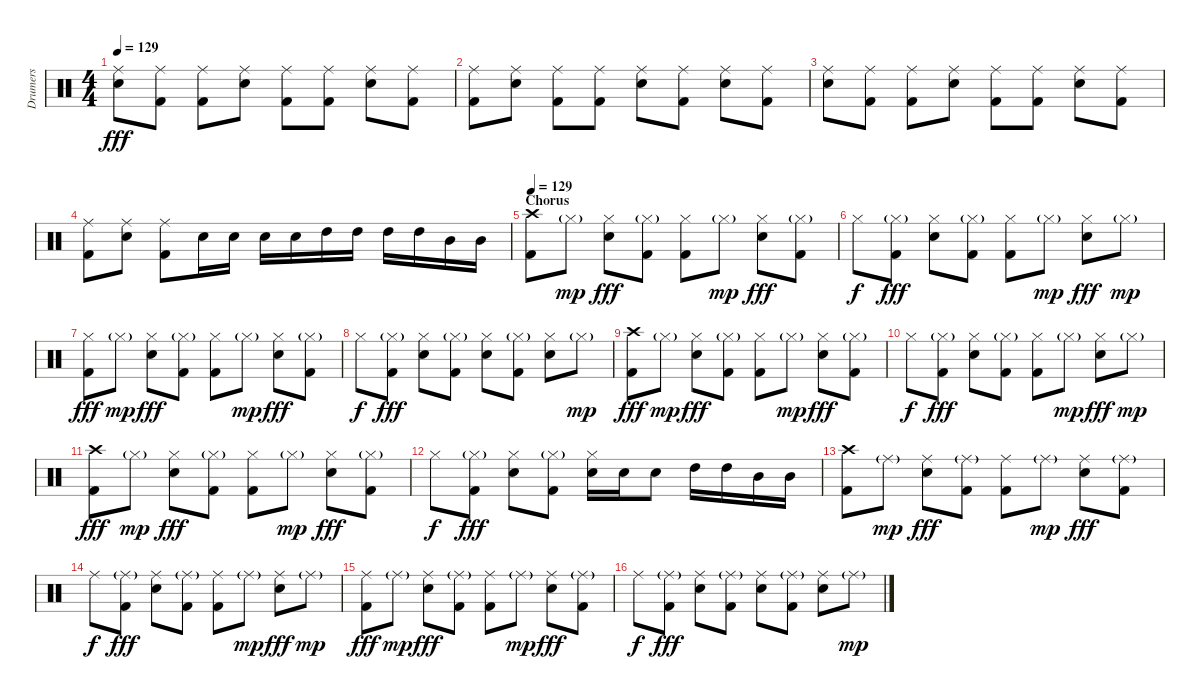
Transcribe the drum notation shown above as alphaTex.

\track ("Drumers" "Drumers") {instrument percussion}
\staff {score}
\articulation defaults
\ts (4 4)
\tempo 129
\clef neutral
\ks c
("Ride (middle)" "Electric Snare (hit)").8{dy fff} ("Ride (middle)" "Kick (hit) 2").8 ("Ride (middle)" "Kick (hit) 2").8 ("Ride (middle)" "Electric Snare (hit)").8 ("Ride (middle)" "Kick (hit) 2").8 ("Ride (middle)" "Kick (hit) 2").8 ("Ride (middle)" "Electric Snare (hit)").8 ("Ride (middle)" "Kick (hit) 2").8 |
("Ride (middle)" "Kick (hit) 2").8 ("Ride (middle)" "Electric Snare (hit)").8 ("Ride (middle)" "Kick (hit) 2").8 ("Ride (middle)" "Kick (hit) 2").8 ("Ride (middle)" "Electric Snare (hit)").8 ("Ride (middle)" "Kick (hit) 2").8 ("Ride (middle)" "Electric Snare (hit)").8 ("Ride (middle)" "Kick (hit) 2").8 |
("Ride (middle)" "Electric Snare (hit)").8 ("Ride (middle)" "Kick (hit) 2").8 ("Ride (middle)" "Kick (hit) 2").8 ("Ride (middle)" "Electric Snare (hit)").8 ("Ride (middle)" "Kick (hit) 2").8 ("Ride (middle)" "Kick (hit) 2").8 ("Ride (middle)" "Electric Snare (hit)").8 ("Ride (middle)" "Kick (hit) 2").8 |
("Ride (middle)" "Kick (hit) 2").8 ("Ride (middle)" "Electric Snare (hit)").8 ("Ride (middle)" "Kick (hit) 2").8 "Electric Snare (hit)".16 "Electric Snare (hit)".16 "Electric Snare (hit)".16 "Electric Snare (hit)".16 "High Tom (hit)".16 "High Tom (hit)".16 "High Tom (hit)".16 "High Tom (hit)".16 "Mid Tom (hit)".16 "Mid Tom (hit)".16 |
\section ("" "Chorus")
\tempo 129
("Crash high (hit)" "Kick (hit) 2").8 "Hi-Hat (closed)"{g}.8{dy mp} ("Hi-Hat (closed)" "Electric Snare (hit)").8{dy fff} ("Hi-Hat (closed)"{g} "Kick (hit) 2").8 ("Hi-Hat (closed)" "Kick (hit) 2").8 "Hi-Hat (closed)"{g}.8{dy mp} ("Hi-Hat (closed)" "Electric Snare (hit)").8{dy fff} ("Hi-Hat (closed)"{g} "Kick (hit) 2").8 |
"Hi-Hat (closed)".8{dy f} ("Hi-Hat (closed)"{g} "Kick (hit) 2").8{dy fff} ("Hi-Hat (closed)" "Electric Snare (hit)").8 ("Hi-Hat (closed)"{g} "Kick (hit) 2").8 ("Hi-Hat (closed)" "Kick (hit) 2").8 "Hi-Hat (closed)"{g}.8{dy mp} ("Hi-Hat (closed)" "Electric Snare (hit)").8{dy fff} "Hi-Hat (closed)"{g}.8{dy mp} |
("Hi-Hat (closed)" "Kick (hit) 2").8{dy fff} "Hi-Hat (closed)"{g}.8{dy mp} ("Hi-Hat (closed)" "Electric Snare (hit)").8{dy fff} ("Hi-Hat (closed)"{g} "Kick (hit) 2").8 ("Hi-Hat (closed)" "Kick (hit) 2").8 "Hi-Hat (closed)"{g}.8{dy mp} ("Hi-Hat (closed)" "Electric Snare (hit)").8{dy fff} ("Hi-Hat (closed)"{g} "Kick (hit) 2").8 |
"Hi-Hat (closed)".8{dy f} ("Hi-Hat (closed)"{g} "Kick (hit) 2").8{dy fff} ("Hi-Hat (closed)" "Electric Snare (hit)").8 ("Hi-Hat (closed)"{g} "Kick (hit) 2").8 ("Hi-Hat (closed)" "Electric Snare (hit)").8 ("Hi-Hat (closed)"{g} "Kick (hit) 2").8 ("Hi-Hat (closed)" "Electric Snare (hit)").8 "Hi-Hat (closed)"{g}.8{dy mp} |
("Crash high (hit)" "Kick (hit) 2").8{dy fff} "Hi-Hat (closed)"{g}.8{dy mp} ("Hi-Hat (closed)" "Electric Snare (hit)").8{dy fff} ("Hi-Hat (closed)"{g} "Kick (hit) 2").8 ("Hi-Hat (closed)" "Kick (hit) 2").8 "Hi-Hat (closed)"{g}.8{dy mp} ("Hi-Hat (closed)" "Electric Snare (hit)").8{dy fff} ("Hi-Hat (closed)"{g} "Kick (hit) 2").8 |
"Hi-Hat (closed)".8{dy f} ("Hi-Hat (closed)"{g} "Kick (hit) 2").8{dy fff} ("Hi-Hat (closed)" "Electric Snare (hit)").8 ("Hi-Hat (closed)"{g} "Kick (hit) 2").8 ("Hi-Hat (closed)" "Kick (hit) 2").8 "Hi-Hat (closed)"{g}.8{dy mp} ("Hi-Hat (closed)" "Electric Snare (hit)").8{dy fff} "Hi-Hat (closed)"{g}.8{dy mp} |
("Crash high (hit)" "Kick (hit) 2").8{dy fff} "Hi-Hat (closed)"{g}.8{dy mp} ("Hi-Hat (closed)" "Electric Snare (hit)").8{dy fff} ("Hi-Hat (closed)"{g} "Kick (hit) 2").8 ("Hi-Hat (closed)" "Kick (hit) 2").8 "Hi-Hat (closed)"{g}.8{dy mp} ("Hi-Hat (closed)" "Electric Snare (hit)").8{dy fff} ("Hi-Hat (closed)"{g} "Kick (hit) 2").8 |
"Hi-Hat (closed)".8{dy f} ("Hi-Hat (closed)"{g} "Kick (hit) 2").8{dy fff} ("Hi-Hat (closed)" "Electric Snare (hit)").8 ("Hi-Hat (closed)"{g} "Kick (hit) 2").8 ("Hi-Hat (closed)" "Electric Snare (hit)").16 "Electric Snare (hit)".16 "Electric Snare (hit)".8 "High Tom (hit)".16 "High Tom (hit)".16 "Mid Tom (hit)".16 "Mid Tom (hit)".16 |
("Crash high (hit)" "Kick (hit) 2").8 "Ride (middle)"{g}.8{dy mp} ("Ride (middle)" "Electric Snare (hit)").8{dy fff} ("Ride (middle)"{g} "Kick (hit) 2").8 ("Ride (middle)" "Kick (hit) 2").8 "Ride (middle)"{g}.8{dy mp} ("Ride (middle)" "Electric Snare (hit)").8{dy fff} ("Ride (middle)"{g} "Kick (hit) 2").8 |
"Ride (middle)".8{dy f} ("Ride (middle)"{g} "Kick (hit) 2").8{dy fff} ("Ride (middle)" "Electric Snare (hit)").8 ("Ride (middle)"{g} "Kick (hit) 2").8 ("Ride (middle)" "Kick (hit) 2").8 "Ride (middle)"{g}.8{dy mp} ("Ride (middle)" "Electric Snare (hit)").8{dy fff} "Ride (middle)"{g}.8{dy mp} |
("Ride (middle)" "Kick (hit) 2").8{dy fff} "Ride (middle)"{g}.8{dy mp} ("Ride (middle)" "Electric Snare (hit)").8{dy fff} ("Ride (middle)"{g} "Kick (hit) 2").8 ("Ride (middle)" "Kick (hit) 2").8 "Ride (middle)"{g}.8{dy mp} ("Ride (middle)" "Electric Snare (hit)").8{dy fff} ("Ride (middle)"{g} "Kick (hit) 2").8 |
"Ride (middle)".8{dy f} ("Ride (middle)"{g} "Kick (hit) 2").8{dy fff} ("Ride (middle)" "Electric Snare (hit)").8 ("Ride (middle)"{g} "Kick (hit) 2").8 ("Ride (middle)" "Electric Snare (hit)").8 ("Ride (middle)"{g} "Kick (hit) 2").8 ("Ride (middle)" "Electric Snare (hit)").8 "Ride (middle)"{g}.8{dy mp}
